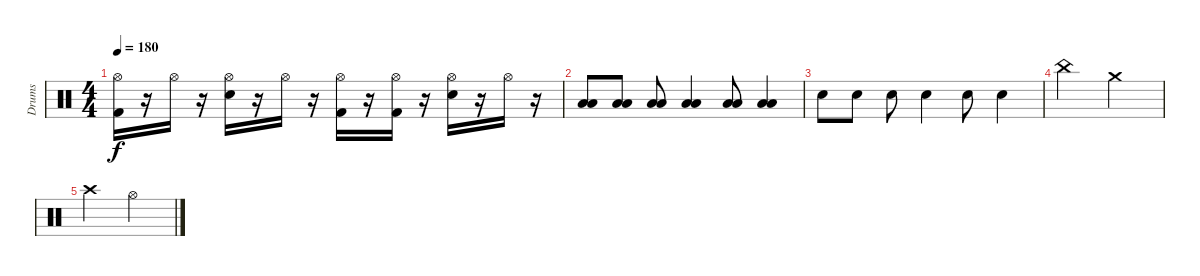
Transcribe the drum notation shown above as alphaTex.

\track ("Drums" "Drums") {instrument percussion}
\staff {score}
\articulation defaults
\ts (4 4)
\tempo 180
\clef neutral
\ks c
("Hi-Hat (open)" "Kick (hit) 2").16{dy f} r.16 "Hi-Hat (open)".16 r.16 ("Hi-Hat (open)" "Electric Snare (hit)").16 r.16 "Hi-Hat (open)".16 r.16 ("Hi-Hat (open)" "Kick (hit) 2").16 r.16 ("Hi-Hat (open)" "Kick (hit) 2").16 r.16 ("Hi-Hat (open)" "Electric Snare (hit)").16 r.16 "Hi-Hat (open)".16 r.16 |
("Low Floor Tom (hit)" "Low Floor Tom (hit)").8 ("Low Floor Tom (hit)" "Low Floor Tom (hit)").8 ("Low Floor Tom (hit)" "Low Floor Tom (hit)").8 ("Low Floor Tom (hit)" "Low Floor Tom (hit)").4 ("Low Floor Tom (hit)" "Low Floor Tom (hit)").8 ("Low Floor Tom (hit)" "Low Floor Tom (hit)").4 |
"Electric Snare (hit)".8 "Electric Snare (hit)".8 "Electric Snare (hit)".8 "Electric Snare (hit)".4 "Electric Snare (hit)".8 "Electric Snare (hit)".4 |
"China (hit)".2 "Crash medium (hit)".2 |
"Crash high (hit)".2 "Hi-Hat (open)".2
